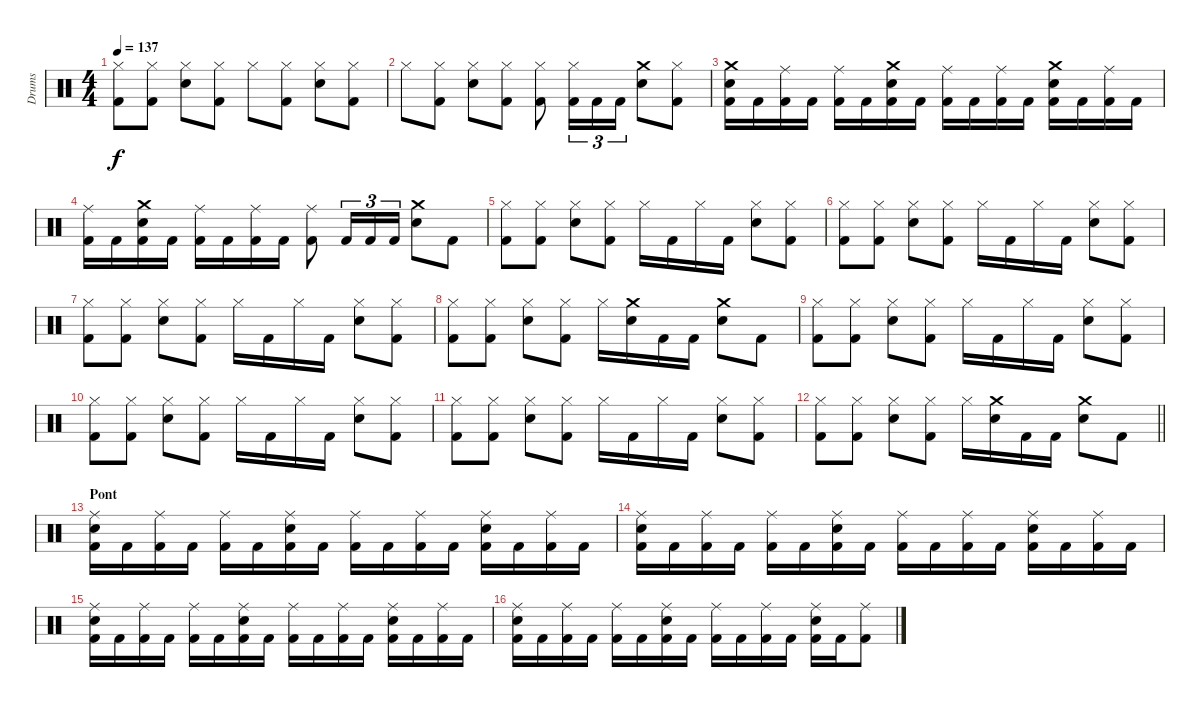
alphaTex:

\track ("Drums" "Drums") {instrument percussion}
\staff {score}
\articulation defaults
\ts (4 4)
\tempo 137
\clef neutral
\ks c
("Hi-Hat (closed)" "Kick (hit) 2").8{dy f} ("Hi-Hat (closed)" "Kick (hit) 2").8 ("Hi-Hat (closed)" "Electric Snare (hit)").8 ("Hi-Hat (closed)" "Kick (hit) 2").8 "Hi-Hat (closed)".8 ("Hi-Hat (closed)" "Kick (hit) 2").8 ("Hi-Hat (closed)" "Electric Snare (hit)").8 ("Hi-Hat (closed)" "Kick (hit) 2").8 |
"Hi-Hat (closed)".8 ("Hi-Hat (closed)" "Kick (hit) 2").8 ("Hi-Hat (closed)" "Electric Snare (hit)").8 ("Hi-Hat (closed)" "Kick (hit) 2").8 ("Hi-Hat (closed)" "Kick (hit) 2").8 ("Hi-Hat (closed)" "Kick (hit) 2").16{tu (3 2)} "Kick (hit) 2".16{tu (3 2)} "Kick (hit) 2".16{tu (3 2)} ("Crash medium (hit)" "Electric Snare (hit)").8 ("Hi-Hat (closed)" "Kick (hit) 2").8 |
("Crash medium (hit)" "Electric Snare (hit)" "Kick (hit) 2").16 "Kick (hit) 2".16 ("Ride (middle)" "Kick (hit) 2").16 "Kick (hit) 2".16 ("Ride (middle)" "Kick (hit) 2").16 "Kick (hit) 2".16 ("Crash medium (hit)" "Electric Snare (hit)" "Kick (hit) 2").16 "Kick (hit) 2".16 ("Ride (middle)" "Kick (hit) 2").16 "Kick (hit) 2".16 ("Ride (middle)" "Kick (hit) 2").16 "Kick (hit) 2".16 ("Crash medium (hit)" "Electric Snare (hit)" "Kick (hit) 2").16 "Kick (hit) 2".16 ("Ride (middle)" "Kick (hit) 2").16 "Kick (hit) 2".16 |
("Ride (middle)" "Kick (hit) 2").16 "Kick (hit) 2".16 ("Crash medium (hit)" "Electric Snare (hit)" "Kick (hit) 2").16 "Kick (hit) 2".16 ("Ride (middle)" "Kick (hit) 2").16 "Kick (hit) 2".16 ("Ride (middle)" "Kick (hit) 2").16 "Kick (hit) 2".16 ("Ride (middle)" "Kick (hit) 2").8 "Kick (hit) 2".16{tu (3 2)} "Kick (hit) 2".16{tu (3 2)} "Kick (hit) 2".16{tu (3 2)} ("Crash medium (hit)" "Electric Snare (hit)").8 "Kick (hit) 2".8 |
("Hi-Hat (closed)" "Kick (hit) 2").8 ("Hi-Hat (closed)" "Kick (hit) 2").8 ("Hi-Hat (closed)" "Electric Snare (hit)").8 ("Hi-Hat (closed)" "Kick (hit) 2").8 "Hi-Hat (closed)".16 "Kick (hit) 2".16 "Hi-Hat (closed)".16 "Kick (hit) 2".16 ("Hi-Hat (closed)" "Electric Snare (hit)").8 ("Hi-Hat (closed)" "Kick (hit) 2").8 |
("Hi-Hat (closed)" "Kick (hit) 2").8 ("Hi-Hat (closed)" "Kick (hit) 2").8 ("Hi-Hat (closed)" "Electric Snare (hit)").8 ("Hi-Hat (closed)" "Kick (hit) 2").8 "Hi-Hat (closed)".16 "Kick (hit) 2".16 "Hi-Hat (closed)".16 "Kick (hit) 2".16 ("Hi-Hat (closed)" "Electric Snare (hit)").8 ("Hi-Hat (closed)" "Kick (hit) 2").8 |
("Hi-Hat (closed)" "Kick (hit) 2").8 ("Hi-Hat (closed)" "Kick (hit) 2").8 ("Hi-Hat (closed)" "Electric Snare (hit)").8 ("Hi-Hat (closed)" "Kick (hit) 2").8 "Hi-Hat (closed)".16 "Kick (hit) 2".16 "Hi-Hat (closed)".16 "Kick (hit) 2".16 ("Hi-Hat (closed)" "Electric Snare (hit)").8 ("Hi-Hat (closed)" "Kick (hit) 2").8 |
("Hi-Hat (closed)" "Kick (hit) 2").8 ("Hi-Hat (closed)" "Kick (hit) 2").8 ("Hi-Hat (closed)" "Electric Snare (hit)").8 ("Hi-Hat (closed)" "Kick (hit) 2").8 "Hi-Hat (closed)".16 ("Crash medium (hit)" "Electric Snare (hit)").16 "Kick (hit) 2".16 "Kick (hit) 2".16 ("Crash medium (hit)" "Electric Snare (hit)").8 "Kick (hit) 2".8 |
("Hi-Hat (closed)" "Kick (hit) 2").8 ("Hi-Hat (closed)" "Kick (hit) 2").8 ("Hi-Hat (closed)" "Electric Snare (hit)").8 ("Hi-Hat (closed)" "Kick (hit) 2").8 "Hi-Hat (closed)".16 "Kick (hit) 2".16 "Hi-Hat (closed)".16 "Kick (hit) 2".16 ("Hi-Hat (closed)" "Electric Snare (hit)").8 ("Hi-Hat (closed)" "Kick (hit) 2").8 |
("Hi-Hat (closed)" "Kick (hit) 2").8 ("Hi-Hat (closed)" "Kick (hit) 2").8 ("Hi-Hat (closed)" "Electric Snare (hit)").8 ("Hi-Hat (closed)" "Kick (hit) 2").8 "Hi-Hat (closed)".16 "Kick (hit) 2".16 "Hi-Hat (closed)".16 "Kick (hit) 2".16 ("Hi-Hat (closed)" "Electric Snare (hit)").8 ("Hi-Hat (closed)" "Kick (hit) 2").8 |
("Hi-Hat (closed)" "Kick (hit) 2").8 ("Hi-Hat (closed)" "Kick (hit) 2").8 ("Hi-Hat (closed)" "Electric Snare (hit)").8 ("Hi-Hat (closed)" "Kick (hit) 2").8 "Hi-Hat (closed)".16 "Kick (hit) 2".16 "Hi-Hat (closed)".16 "Kick (hit) 2".16 ("Hi-Hat (closed)" "Electric Snare (hit)").8 ("Hi-Hat (closed)" "Kick (hit) 2").8 |
\barLineRight lightlight
("Hi-Hat (closed)" "Kick (hit) 2").8 ("Hi-Hat (closed)" "Kick (hit) 2").8 ("Hi-Hat (closed)" "Electric Snare (hit)").8 ("Hi-Hat (closed)" "Kick (hit) 2").8 "Hi-Hat (closed)".16 ("Crash medium (hit)" "Electric Snare (hit)").16 "Kick (hit) 2".16 "Kick (hit) 2".16 ("Crash medium (hit)" "Electric Snare (hit)").8 "Kick (hit) 2".8 |
\section ("" "Pont")
("Ride (middle)" "Electric Snare (hit)" "Kick (hit) 2").16 "Kick (hit) 2".16 ("Ride (middle)" "Kick (hit) 2").16 "Kick (hit) 2".16 ("Ride (middle)" "Kick (hit) 2").16 "Kick (hit) 2".16 ("Ride (middle)" "Electric Snare (hit)" "Kick (hit) 2").16 "Kick (hit) 2".16 ("Ride (middle)" "Kick (hit) 2").16 "Kick (hit) 2".16 ("Ride (middle)" "Kick (hit) 2").16 "Kick (hit) 2".16 ("Ride (middle)" "Electric Snare (hit)" "Kick (hit) 2").16 "Kick (hit) 2".16 ("Ride (middle)" "Kick (hit) 2").16 "Kick (hit) 2".16 |
("Ride (middle)" "Electric Snare (hit)" "Kick (hit) 2").16 "Kick (hit) 2".16 ("Ride (middle)" "Kick (hit) 2").16 "Kick (hit) 2".16 ("Ride (middle)" "Kick (hit) 2").16 "Kick (hit) 2".16 ("Ride (middle)" "Electric Snare (hit)" "Kick (hit) 2").16 "Kick (hit) 2".16 ("Ride (middle)" "Kick (hit) 2").16 "Kick (hit) 2".16 ("Ride (middle)" "Kick (hit) 2").16 "Kick (hit) 2".16 ("Ride (middle)" "Electric Snare (hit)" "Kick (hit) 2").16 "Kick (hit) 2".16 ("Ride (middle)" "Kick (hit) 2").16 "Kick (hit) 2".16 |
("Ride (middle)" "Electric Snare (hit)" "Kick (hit) 2").16 "Kick (hit) 2".16 ("Ride (middle)" "Kick (hit) 2").16 "Kick (hit) 2".16 ("Ride (middle)" "Kick (hit) 2").16 "Kick (hit) 2".16 ("Ride (middle)" "Electric Snare (hit)" "Kick (hit) 2").16 "Kick (hit) 2".16 ("Ride (middle)" "Kick (hit) 2").16 "Kick (hit) 2".16 ("Ride (middle)" "Kick (hit) 2").16 "Kick (hit) 2".16 ("Ride (middle)" "Electric Snare (hit)" "Kick (hit) 2").16 "Kick (hit) 2".16 ("Ride (middle)" "Kick (hit) 2").16 "Kick (hit) 2".16 |
("Ride (middle)" "Electric Snare (hit)" "Kick (hit) 2").16 "Kick (hit) 2".16 ("Ride (middle)" "Kick (hit) 2").16 "Kick (hit) 2".16 ("Ride (middle)" "Kick (hit) 2").16 "Kick (hit) 2".16 ("Ride (middle)" "Electric Snare (hit)" "Kick (hit) 2").16 "Kick (hit) 2".16 ("Ride (middle)" "Kick (hit) 2").16 "Kick (hit) 2".16 ("Ride (middle)" "Kick (hit) 2").16 "Kick (hit) 2".16 ("Ride (middle)" "Electric Snare (hit)" "Kick (hit) 2").16 "Kick (hit) 2".16 ("Ride (middle)" "Kick (hit) 2").8
